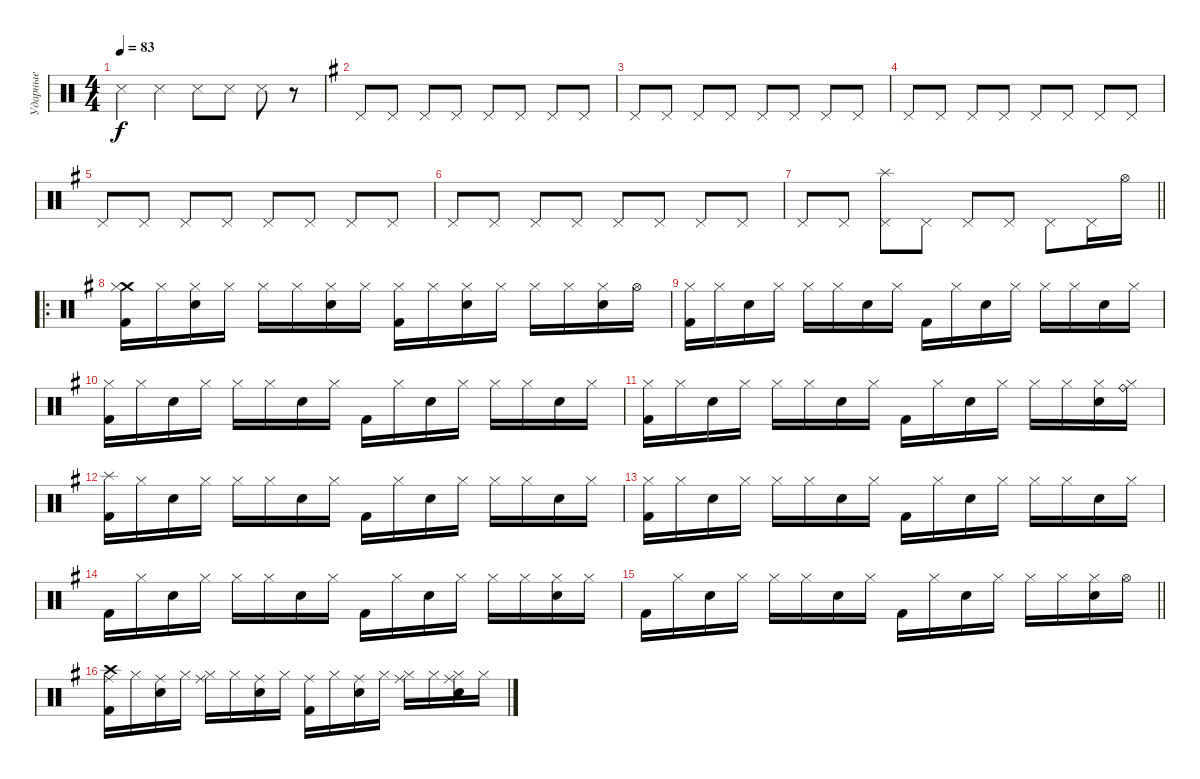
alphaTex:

\track ("Ударные" "Ударные") {instrument percussion}
\staff {score}
\articulation defaults
\ts (4 4)
\tempo 83
\clef neutral
\ks c "Snare (side stick) 3".4{dy f} "Snare (side stick) 3".4 "Snare (side stick) 3".8 "Snare (side stick) 3".8 "Snare (side stick) 3".8
r.8 |
\ks g "Pedal Hi-Hat (hit)".8 "Pedal Hi-Hat (hit)".8 "Pedal Hi-Hat (hit)".8 "Pedal Hi-Hat (hit)".8 "Pedal Hi-Hat (hit)".8 "Pedal Hi-Hat (hit)".8 "Pedal Hi-Hat (hit)".8 "Pedal Hi-Hat (hit)".8
|
"Pedal Hi-Hat (hit)".8 "Pedal Hi-Hat (hit)".8 "Pedal Hi-Hat (hit)".8 "Pedal Hi-Hat (hit)".8 "Pedal Hi-Hat (hit)".8 "Pedal Hi-Hat (hit)".8 "Pedal Hi-Hat (hit)".8 "Pedal Hi-Hat (hit)".8 |
"Pedal Hi-Hat (hit)".8 "Pedal Hi-Hat (hit)".8 "Pedal Hi-Hat (hit)".8 "Pedal Hi-Hat (hit)".8 "Pedal Hi-Hat (hit)".8 "Pedal Hi-Hat (hit)".8 "Pedal Hi-Hat (hit)".8 "Pedal Hi-Hat (hit)".8 |
"Pedal Hi-Hat (hit)".8 "Pedal Hi-Hat (hit)".8 "Pedal Hi-Hat (hit)".8 "Pedal Hi-Hat (hit)".8 "Pedal Hi-Hat (hit)".8 "Pedal Hi-Hat (hit)".8 "Pedal Hi-Hat (hit)".8 "Pedal Hi-Hat (hit)".8 |
"Pedal Hi-Hat (hit)".8 "Pedal Hi-Hat (hit)".8 "Pedal Hi-Hat (hit)".8 "Pedal Hi-Hat (hit)".8 "Pedal Hi-Hat (hit)".8 "Pedal Hi-Hat (hit)".8 "Pedal Hi-Hat (hit)".8 "Pedal Hi-Hat (hit)".8 |
\barLineRight lightlight "Pedal Hi-Hat (hit)".8 "Pedal Hi-Hat (hit)".8
("Splash (hit)" "Pedal Hi-Hat (hit)").8 "Pedal Hi-Hat (hit)".8 "Pedal Hi-Hat (hit)".8 "Pedal Hi-Hat (hit)".8 "Pedal Hi-Hat (hit)".8 "Pedal Hi-Hat (hit)".16 "Hi-Hat (open)".16 |
\ro
("Crash medium (hit)" "Hi-Hat (closed)" "Kick (hit) 2").16 "Hi-Hat (closed)".16 ("Hi-Hat (closed)" "Snare (hit) 2").16 "Hi-Hat (closed)".16 "Hi-Hat (closed)".16 "Hi-Hat (closed)".16 ("Hi-Hat (closed)" "Snare (hit) 2").16 "Hi-Hat (closed)".16 ("Hi-Hat (closed)" "Kick (hit) 2").16 "Hi-Hat (closed)".16 ("Hi-Hat (closed)" "Snare (hit) 2").16 "Hi-Hat (closed)".16 "Hi-Hat (closed)".16 "Hi-Hat (closed)".16 ("Hi-Hat (closed)" "Snare (hit) 2").16 "Hi-Hat (open)".16 |
("Hi-Hat (closed)" "Kick (hit) 2").16 "Hi-Hat (closed)".16 "Snare (hit) 2".16 "Hi-Hat (closed)".16 "Hi-Hat (closed)".16 "Hi-Hat (closed)".16 "Snare (hit) 2".16 "Hi-Hat (closed)".16 "Kick (hit) 2".16 "Hi-Hat (closed)".16 "Snare (hit) 2".16 "Hi-Hat (closed)".16 "Hi-Hat (closed)".16 "Hi-Hat (closed)".16 "Snare (hit) 2".16 "Hi-Hat (closed)".16 |
("Hi-Hat (closed)" "Kick (hit) 2").16 "Hi-Hat (closed)".16 "Snare (hit) 2".16 "Hi-Hat (closed)".16 "Hi-Hat (closed)".16 "Hi-Hat (closed)".16 "Snare (hit) 2".16 "Hi-Hat (closed)".16 "Kick (hit) 2".16 "Hi-Hat (closed)".16 "Snare (hit) 2".16 "Hi-Hat (closed)".16 "Hi-Hat (closed)".16 "Hi-Hat (closed)".16 "Snare (hit) 2".16 "Hi-Hat (closed)".16 |
("Hi-Hat (closed)" "Kick (hit) 2").16 "Hi-Hat (closed)".16 "Snare (hit) 2".16 "Hi-Hat (closed)".16 "Hi-Hat (closed)".16 "Hi-Hat (closed)".16 "Snare (hit) 2".16 "Hi-Hat (closed)".16 "Kick (hit) 2".16 "Hi-Hat (closed)".16 "Snare (hit) 2".16 "Hi-Hat (closed)".16 "Hi-Hat (closed)".16 "Hi-Hat (closed)".16 ("Hi-Hat (closed)" "Snare (hit) 2").16 ("Ride (bell)" "Hi-Hat (closed)").16 |
("Splash (hit)" "Kick (hit) 2").16 "Hi-Hat (closed)".16 "Snare (hit) 2".16 "Hi-Hat (closed)".16 "Hi-Hat (closed)".16 "Hi-Hat (closed)".16 "Snare (hit) 2".16 "Hi-Hat (closed)".16 "Kick (hit) 2".16 "Hi-Hat (closed)".16 "Snare (hit) 2".16 "Hi-Hat (closed)".16 "Hi-Hat (closed)".16 "Hi-Hat (closed)".16 "Snare (hit) 2".16 "Hi-Hat (closed)".16 |
("Hi-Hat (closed)" "Kick (hit) 2").16 "Hi-Hat (closed)".16 "Snare (hit) 2".16 "Hi-Hat (closed)".16 "Hi-Hat (closed)".16 "Hi-Hat (closed)".16 "Snare (hit) 2".16 "Hi-Hat (closed)".16 "Kick (hit) 2".16 "Hi-Hat (closed)".16 "Snare (hit) 2".16 "Hi-Hat (closed)".16 "Hi-Hat (closed)".16 "Hi-Hat (closed)".16 "Snare (hit) 2".16 "Hi-Hat (closed)".16 |
"Kick (hit) 2".16 "Hi-Hat (closed)".16 "Snare (hit) 2".16 "Hi-Hat (closed)".16 "Hi-Hat (closed)".16 "Hi-Hat (closed)".16 "Snare (hit) 2".16 "Hi-Hat (closed)".16 "Kick (hit) 2".16 "Hi-Hat (closed)".16 "Snare (hit) 2".16 "Hi-Hat (closed)".16 "Hi-Hat (closed)".16 "Hi-Hat (closed)".16 ("Hi-Hat (closed)" "Snare (hit) 2").16 "Hi-Hat (closed)".16 |
\barLineRight lightlight "Kick (hit) 2".16 "Hi-Hat (closed)".16 "Snare (hit) 2".16 "Hi-Hat (closed)".16 "Hi-Hat (closed)".16 "Hi-Hat (closed)".16 "Snare (hit) 2".16 "Hi-Hat (closed)".16 "Kick (hit) 2".16 "Hi-Hat (closed)".16 "Snare (hit) 2".16 "Hi-Hat (closed)".16 "Hi-Hat (closed)".16 "Hi-Hat (closed)".16
("Hi-Hat (closed)" "Snare (hit) 2").16 "Hi-Hat (open)".16 |
("Ride (middle)" "Crash high (hit)" "Kick (hit) 2").16 "Hi-Hat (closed)".16 ("Ride (middle)" "Snare (hit) 2").16 "Hi-Hat (closed)".16 ("Ride (middle)" "Hi-Hat (closed)").16 "Hi-Hat (closed)".16 ("Ride (middle)" "Snare (hit) 2").16 "Hi-Hat (closed)".16 ("Ride (middle)" "Kick (hit) 2").16 "Hi-Hat (closed)".16 ("Ride (middle)" "Snare (hit) 2").16 "Hi-Hat (closed)".16 ("Ride (middle)" "Hi-Hat (closed)").16 "Hi-Hat (closed)".16 ("Ride (middle)" "Hi-Hat (closed)" "Snare (hit) 2").16 "Hi-Hat (closed)".16
